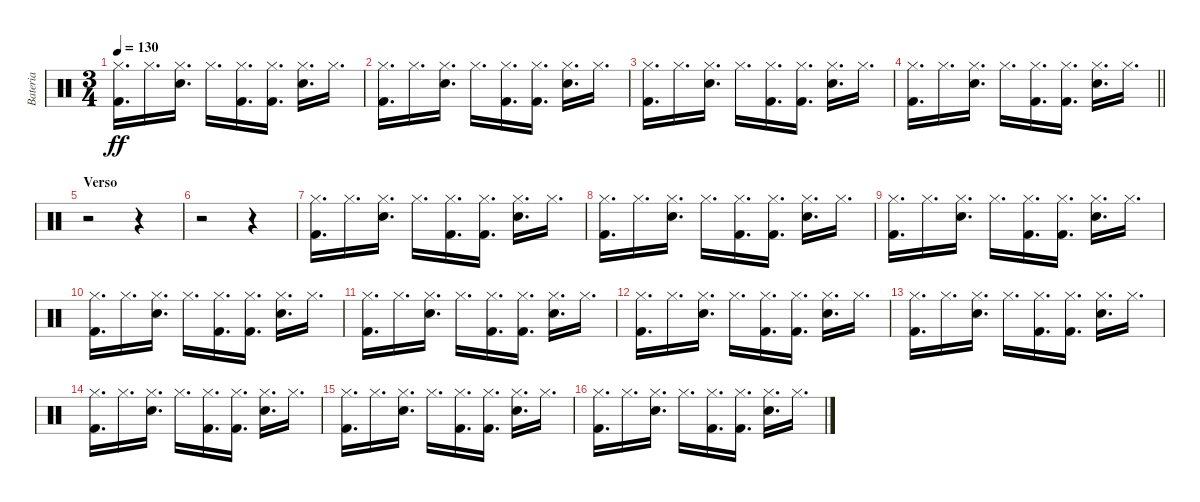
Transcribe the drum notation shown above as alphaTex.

\track ("Bateria" "Bateria") {instrument percussion}
\staff {score}
\articulation defaults
\ts (3 4)
\tempo 130
\clef neutral
\ks c
("Hi-Hat (closed)" "Kick (hit) 2").16{d dy ff} "Hi-Hat (closed)".16{d} ("Hi-Hat (closed)" "Snare (hit) 2").16{d} "Hi-Hat (closed)".16{d} ("Hi-Hat (closed)" "Kick (hit) 2").16{d} ("Hi-Hat (closed)" "Kick (hit) 2").16{d} ("Hi-Hat (closed)" "Snare (hit) 2").16{d} "Hi-Hat (closed)".16{d} |
("Hi-Hat (closed)" "Kick (hit) 2").16{d} "Hi-Hat (closed)".16{d} ("Hi-Hat (closed)" "Snare (hit) 2").16{d} "Hi-Hat (closed)".16{d} ("Hi-Hat (closed)" "Kick (hit) 2").16{d} ("Hi-Hat (closed)" "Kick (hit) 2").16{d} ("Hi-Hat (closed)" "Snare (hit) 2").16{d} "Hi-Hat (closed)".16{d} |
("Hi-Hat (closed)" "Kick (hit) 2").16{d} "Hi-Hat (closed)".16{d} ("Hi-Hat (closed)" "Snare (hit) 2").16{d} "Hi-Hat (closed)".16{d} ("Hi-Hat (closed)" "Kick (hit) 2").16{d} ("Hi-Hat (closed)" "Kick (hit) 2").16{d} ("Hi-Hat (closed)" "Snare (hit) 2").16{d} "Hi-Hat (closed)".16{d} |
\barLineRight lightlight
("Hi-Hat (closed)" "Kick (hit) 2").16{d} "Hi-Hat (closed)".16{d} ("Hi-Hat (closed)" "Snare (hit) 2").16{d} "Hi-Hat (closed)".16{d} ("Hi-Hat (closed)" "Kick (hit) 2").16{d} ("Hi-Hat (closed)" "Kick (hit) 2").16{d} ("Hi-Hat (closed)" "Snare (hit) 2").16{d} "Hi-Hat (closed)".16{d} |
\section ("" "Verso")
r.2 r.4 |
r.2 r.4 |
("Hi-Hat (closed)" "Kick (hit) 2").16{d} "Hi-Hat (closed)".16{d} ("Hi-Hat (closed)" "Snare (hit) 2").16{d} "Hi-Hat (closed)".16{d} ("Hi-Hat (closed)" "Kick (hit) 2").16{d} ("Hi-Hat (closed)" "Kick (hit) 2").16{d} ("Hi-Hat (closed)" "Snare (hit) 2").16{d} "Hi-Hat (closed)".16{d} |
("Hi-Hat (closed)" "Kick (hit) 2").16{d} "Hi-Hat (closed)".16{d} ("Hi-Hat (closed)" "Snare (hit) 2").16{d} "Hi-Hat (closed)".16{d} ("Hi-Hat (closed)" "Kick (hit) 2").16{d} ("Hi-Hat (closed)" "Kick (hit) 2").16{d} ("Hi-Hat (closed)" "Snare (hit) 2").16{d} "Hi-Hat (closed)".16{d} |
("Hi-Hat (closed)" "Kick (hit) 2").16{d} "Hi-Hat (closed)".16{d} ("Hi-Hat (closed)" "Snare (hit) 2").16{d} "Hi-Hat (closed)".16{d} ("Hi-Hat (closed)" "Kick (hit) 2").16{d} ("Hi-Hat (closed)" "Kick (hit) 2").16{d} ("Hi-Hat (closed)" "Snare (hit) 2").16{d} "Hi-Hat (closed)".16{d} |
("Hi-Hat (closed)" "Kick (hit) 2").16{d} "Hi-Hat (closed)".16{d} ("Hi-Hat (closed)" "Snare (hit) 2").16{d} "Hi-Hat (closed)".16{d} ("Hi-Hat (closed)" "Kick (hit) 2").16{d} ("Hi-Hat (closed)" "Kick (hit) 2").16{d} ("Hi-Hat (closed)" "Snare (hit) 2").16{d} "Hi-Hat (closed)".16{d} |
("Hi-Hat (closed)" "Kick (hit) 2").16{d} "Hi-Hat (closed)".16{d} ("Hi-Hat (closed)" "Snare (hit) 2").16{d} "Hi-Hat (closed)".16{d} ("Hi-Hat (closed)" "Kick (hit) 2").16{d} ("Hi-Hat (closed)" "Kick (hit) 2").16{d} ("Hi-Hat (closed)" "Snare (hit) 2").16{d} "Hi-Hat (closed)".16{d} |
("Hi-Hat (closed)" "Kick (hit) 2").16{d} "Hi-Hat (closed)".16{d} ("Hi-Hat (closed)" "Snare (hit) 2").16{d} "Hi-Hat (closed)".16{d} ("Hi-Hat (closed)" "Kick (hit) 2").16{d} ("Hi-Hat (closed)" "Kick (hit) 2").16{d} ("Hi-Hat (closed)" "Snare (hit) 2").16{d} "Hi-Hat (closed)".16{d} |
("Hi-Hat (closed)" "Kick (hit) 2").16{d} "Hi-Hat (closed)".16{d} ("Hi-Hat (closed)" "Snare (hit) 2").16{d} "Hi-Hat (closed)".16{d} ("Hi-Hat (closed)" "Kick (hit) 2").16{d} ("Hi-Hat (closed)" "Kick (hit) 2").16{d} ("Hi-Hat (closed)" "Snare (hit) 2").16{d} "Hi-Hat (closed)".16{d} |
("Hi-Hat (closed)" "Kick (hit) 2").16{d} "Hi-Hat (closed)".16{d} ("Hi-Hat (closed)" "Snare (hit) 2").16{d} "Hi-Hat (closed)".16{d} ("Hi-Hat (closed)" "Kick (hit) 2").16{d} ("Hi-Hat (closed)" "Kick (hit) 2").16{d} ("Hi-Hat (closed)" "Snare (hit) 2").16{d} "Hi-Hat (closed)".16{d} |
("Hi-Hat (closed)" "Kick (hit) 2").16{d} "Hi-Hat (closed)".16{d} ("Hi-Hat (closed)" "Snare (hit) 2").16{d} "Hi-Hat (closed)".16{d} ("Hi-Hat (closed)" "Kick (hit) 2").16{d} ("Hi-Hat (closed)" "Kick (hit) 2").16{d} ("Hi-Hat (closed)" "Snare (hit) 2").16{d} "Hi-Hat (closed)".16{d} |
("Hi-Hat (closed)" "Kick (hit) 2").16{d} "Hi-Hat (closed)".16{d} ("Hi-Hat (closed)" "Snare (hit) 2").16{d} "Hi-Hat (closed)".16{d} ("Hi-Hat (closed)" "Kick (hit) 2").16{d} ("Hi-Hat (closed)" "Kick (hit) 2").16{d} ("Hi-Hat (closed)" "Snare (hit) 2").16{d} "Hi-Hat (closed)".16{d}
